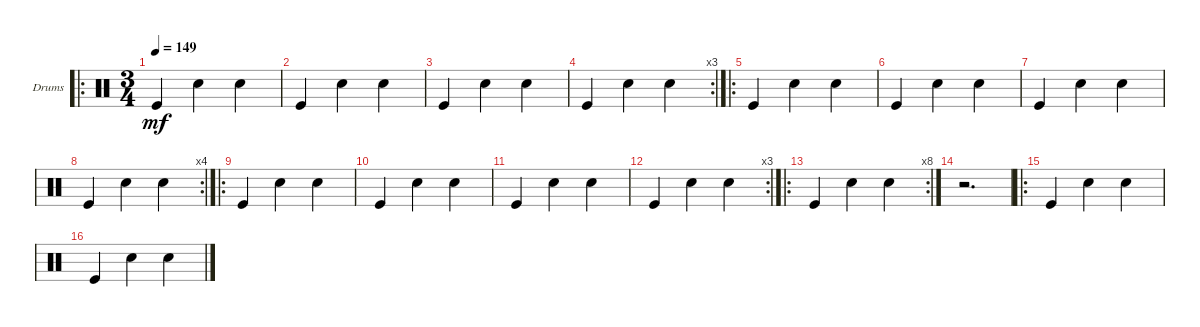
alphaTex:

\defaultSystemsLayout 4
\bracketExtendMode groupsimilarinstruments
\firstSystemTrackNameOrientation horizontal
\otherSystemsTrackNameOrientation horizontal
\chordDiagramsInScore
\track ("Drumkit" "Drums") {instrument percussion}
\staff {score}
\articulation defaults
\ro
\ts (3 4)
\tempo 149
\clef neutral
\ks c "Kick (hit)".4{dy mf} "Snare (hit) 2".4 "Snare (hit) 2".4
|
"Kick (hit)".4 "Snare (hit) 2".4 "Snare (hit) 2".4 |
"Kick (hit)".4 "Snare (hit) 2".4 "Snare (hit) 2".4 |
\rc 3 "Kick (hit)".4 "Snare (hit) 2".4 "Snare (hit) 2".4
|
\ro "Kick (hit)".4 "Snare (hit) 2".4 "Snare (hit) 2".4
|
"Kick (hit)".4 "Snare (hit) 2".4 "Snare (hit) 2".4 |
"Kick (hit)".4 "Snare (hit) 2".4 "Snare (hit) 2".4 |
\rc 4 "Kick (hit)".4 "Snare (hit) 2".4 "Snare (hit) 2".4
|
\ro "Kick (hit)".4 "Snare (hit) 2".4 "Snare (hit) 2".4
|
"Kick (hit)".4 "Snare (hit) 2".4 "Snare (hit) 2".4 |
"Kick (hit)".4 "Snare (hit) 2".4 "Snare (hit) 2".4 |
\rc 3 "Kick (hit)".4 "Snare (hit) 2".4 "Snare (hit) 2".4
|
\ro
\rc 8 "Kick (hit)".4 "Snare (hit) 2".4 "Snare (hit) 2".4
|
r.2{d} |
\ro "Kick (hit)".4 "Snare (hit) 2".4 "Snare (hit) 2".4
|
"Kick (hit)".4 "Snare (hit) 2".4 "Snare (hit) 2".4
